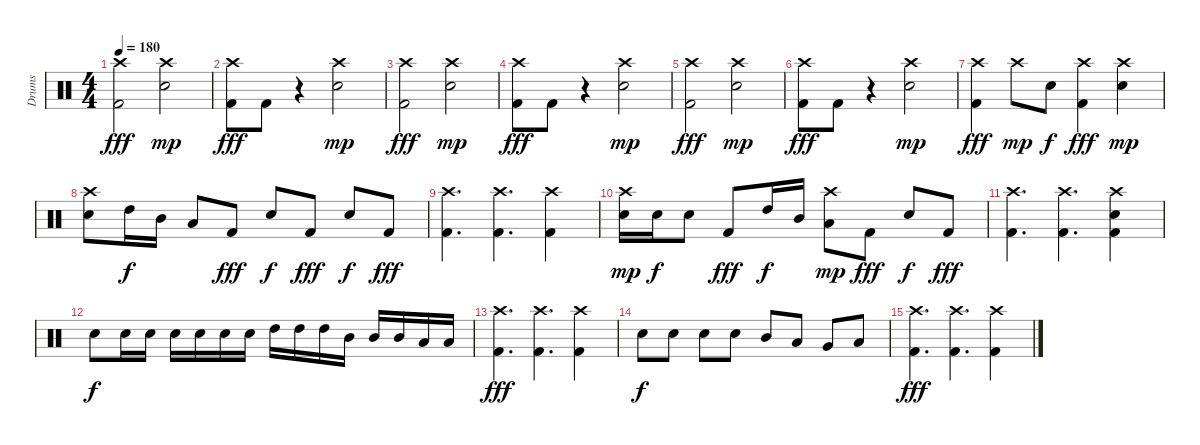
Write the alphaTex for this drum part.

\track ("Drums" "Drums") {instrument percussion}
\staff {score}
\articulation defaults
\ts (4 4)
\tempo 180
\clef neutral
\ks c
("Crash high (hit)" "Kick (hit) 2").2{dy fff} ("Crash high (hit)" "Electric Snare (hit)").2{dy mp} |
("Crash high (hit)" "Kick (hit) 2").8{dy fff} "Kick (hit) 2".8 r.4 ("Crash high (hit)" "Electric Snare (hit)").2{dy mp} |
("Crash high (hit)" "Kick (hit) 2").2{dy fff} ("Crash high (hit)" "Electric Snare (hit)").2{dy mp} |
("Crash high (hit)" "Kick (hit) 2").8{dy fff} "Kick (hit) 2".8 r.4 ("Crash high (hit)" "Electric Snare (hit)").2{dy mp} |
("Crash high (hit)" "Kick (hit) 2").2{dy fff} ("Crash high (hit)" "Electric Snare (hit)").2{dy mp} |
("Crash high (hit)" "Kick (hit) 2").8{dy fff} "Kick (hit) 2".8 r.4 ("Crash high (hit)" "Electric Snare (hit)").2{dy mp} |
("Crash high (hit)" "Kick (hit) 2").4{dy fff} "Crash high (hit)".8{dy mp} "Electric Snare (hit)".8{dy f} ("Crash high (hit)" "Kick (hit) 2").4{dy fff} ("Crash high (hit)" "Electric Snare (hit)").4{dy mp} |
("Crash high (hit)" "Electric Snare (hit)").8 "High Tom (hit)".16{dy f} "Mid Tom (hit)".16 "Low Tom (hit)".8 "Kick (hit) 2".8{dy fff} "Electric Snare (hit)".8{dy f} "Kick (hit) 2".8{dy fff} "Electric Snare (hit)".8{dy f} "Kick (hit) 2".8{dy fff} |
("Crash high (hit)" "Kick (hit) 2").4{d} ("Crash high (hit)" "Kick (hit) 2").4{d} ("Crash high (hit)" "Kick (hit) 2").4 |
("Crash high (hit)" "Electric Snare (hit)").16{dy mp} "Electric Snare (hit)".16{dy f} "Electric Snare (hit)".8 "Kick (hit) 2".8{dy fff} "High Tom (hit)".16{dy f} "Mid Tom (hit)".16 ("Crash high (hit)" "Low Tom (hit)").8{dy mp} "Kick (hit) 2".8{dy fff} "Electric Snare (hit)".8{dy f} "Kick (hit) 2".8{dy fff} |
("Crash high (hit)" "Kick (hit) 2").4{d} ("Crash high (hit)" "Kick (hit) 2").4{d} ("Crash high (hit)" "Electric Snare (hit)" "Kick (hit) 2").4 |
"Electric Snare (hit)".8{dy f} "Electric Snare (hit)".16 "Electric Snare (hit)".16 "Electric Snare (hit)".16 "Electric Snare (hit)".16 "Electric Snare (hit)".16 "Electric Snare (hit)".16 "High Tom (hit)".16 "High Tom (hit)".16 "High Tom (hit)".16 "Mid Tom (hit)".16 "Mid Tom (hit)".16 "Mid Tom (hit)".16 "Low Tom (hit)".16 "Low Tom (hit)".16 |
("Crash high (hit)" "Kick (hit) 2").4{d dy fff} ("Crash high (hit)" "Kick (hit) 2").4{d} ("Crash high (hit)" "Kick (hit) 2").4 |
"Electric Snare (hit)".8{dy f} "Electric Snare (hit)".8 "Electric Snare (hit)".8 "Electric Snare (hit)".8 "Mid Tom (hit)".8 "Low Tom (hit)".8 "Very Low Tom (hit)".8 "Low Floor Tom (hit)".8 |
("Crash high (hit)" "Kick (hit) 2").4{d dy fff} ("Crash high (hit)" "Kick (hit) 2").4{d} ("Crash high (hit)" "Kick (hit) 2").4
